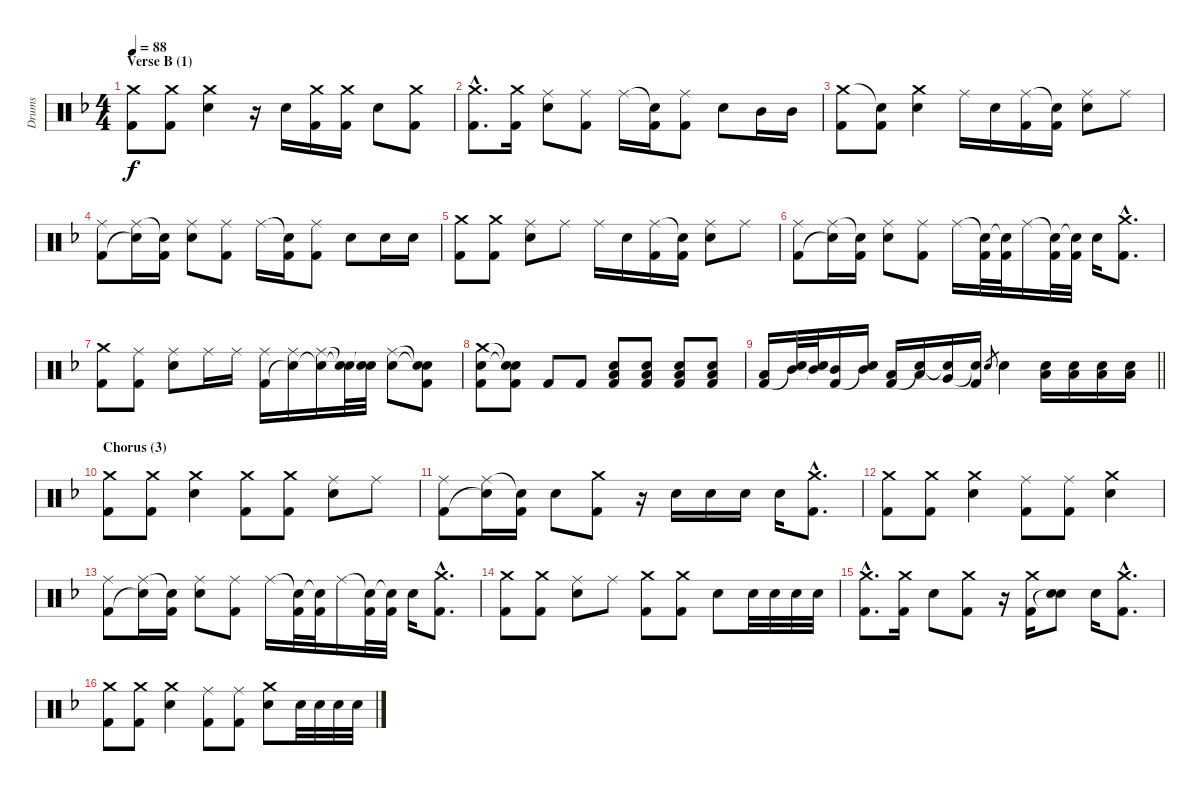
\track ("Drums" "Drums") {instrument percussion}
\staff {score}
\articulation defaults
\ts (4 4)
\section ("" "Verse B (1)")
\tempo 88
\clef neutral
\ks dminor
("Crash medium (hit)" "Kick (hit) 2").8{dy f} ("Crash medium (hit)" "Kick (hit) 2").8 ("Crash medium (hit)" "Electric Snare (hit)").4 r.16 "Electric Snare (hit)".16 ("Crash medium (hit)" "Kick (hit) 2").16 ("Crash medium (hit)" "Kick (hit) 2").16 "Electric Snare (hit)".8 ("Crash medium (hit)" "Kick (hit) 2").8 |
("Crash medium (hit)"{hac} "Kick (hit) 2"{hac}).8{d} ("Crash medium (hit)" "Kick (hit) 2").16 ("Ride (middle)" "Electric Snare (hit)").8 ("Ride (middle)" "Kick (hit) 2").8 "Ride (middle)".16 ("Snare (hit)"{t} "Kick (hit) 2").16 ("Ride (middle)" "Kick (hit) 2").8 "Electric Snare (hit)".8 "Mid Tom (hit)".16 "Mid Tom (hit)".16 |
("Crash medium (hit)" "Kick (hit) 2").8 ("Snare (hit)"{t} "Kick (hit) 2").8 ("Crash medium (hit)" "Electric Snare (hit)").4 "Ride (middle)".16 "Electric Snare (hit)".16 ("Ride (middle)" "Kick (hit) 2").16 ("Snare (hit)"{t} "Kick (hit) 2").16 ("Ride (middle)" "Electric Snare (hit)").8 "Ride (middle)".8 |
("Ride (middle)" "Kick (hit) 2").8 ("Ride (middle)" "Snare (hit)"{t}).16 ("Snare (hit)"{t} "Kick (hit) 2").16 ("Ride (middle)" "Electric Snare (hit)").8 ("Ride (middle)" "Kick (hit) 2").8 "Ride (middle)".16 ("Snare (hit)"{t} "Kick (hit) 2").16 ("Ride (middle)" "Kick (hit) 2").8 "Electric Snare (hit)".8 "Electric Snare (hit)".16 "Electric Snare (hit)".16 |
("Crash medium (hit)" "Kick (hit) 2").8 ("Crash medium (hit)" "Kick (hit) 2").8 ("Ride (middle)" "Electric Snare (hit)").8 "Ride (middle)".8 "Ride (middle)".16 "Electric Snare (hit)".16 ("Ride (middle)" "Kick (hit) 2").16 ("Snare (hit)"{t} "Kick (hit) 2").16 ("Ride (middle)" "Electric Snare (hit)").8 "Ride (middle)".8 |
("Ride (middle)" "Kick (hit) 2").8 ("Ride (middle)" "Snare (hit)"{t}).16 ("Snare (hit)"{t} "Kick (hit) 2").16 ("Ride (middle)" "Electric Snare (hit)").8 ("Ride (middle)" "Kick (hit) 2").8 "Ride (middle)".16 ("Snare (hit)"{t} "Kick (hit) 2").32 ("Snare (hit)"{t} "Kick (hit) 2").32 "Ride (middle)".16 ("Snare (hit)"{t} "Kick (hit) 2").32 ("Snare (hit)"{t} "Kick (hit) 2").32 "Electric Snare (hit)".16 ("Crash medium (hit)"{hac} "Kick (hit) 2"{hac}).8{d} |
("Crash medium (hit)" "Kick (hit) 2").8 ("Ride (middle)" "Kick (hit) 2").8 ("Ride (middle)" "Electric Snare (hit)").8 "Ride (middle)".16 "Ride (middle)".16 ("Ride (middle)" "Kick (hit) 2").16 ("Ride (middle)" "Snare (hit)"{t}).16 ("Ride (middle)" "Snare (hit)"{t}).16 ("Snare (hit)"{t} "Snare (hit)"{t}).32 ("Snare (hit)"{t} "Snare (hit)"{t}).32 ("Ride (middle)" "Electric Snare (hit)").8 ("Snare (hit)"{t} "Snare (hit)"{t} "Kick (hit) 2").8 |
("Crash medium (hit)" "Electric Snare (hit)" "Kick (hit) 2").8 ("Snare (hit)"{t} "Snare (hit)"{t} "Kick (hit) 2").8 "Kick (hit) 2".8 "Kick (hit) 2".8 ("Electric Snare (hit)" "Low Floor Tom (hit)" "Kick (hit) 2").8 ("Electric Snare (hit)" "Low Floor Tom (hit)" "Kick (hit) 2").8 ("Electric Snare (hit)" "Low Floor Tom (hit)" "Kick (hit) 2").8 ("Electric Snare (hit)" "Low Floor Tom (hit)" "Kick (hit) 2").8 |
\barLineRight lightlight
("Low Floor Tom (hit)" "Kick (hit) 2").16 ("Mid Tom (hit)" "Snare (hit)"{t}).32 ("Mid Tom (hit)" "Snare (hit)"{t}).32 ("Mid Tom (hit)" "Kick (hit) 2").16 ("Mid Tom (hit)" "Snare (hit)"{t}).16 ("Low Tom (hit)" "Kick (hit) 2").16 ("Low Tom (hit)" "Snare (hit)"{t}).16 ("Very Low Tom (hit)" "Snare (hit)"{t}).16 ("Snare (hit)"{t} "Kick (hit) 2").16 "Electric Snare (hit)".8{gr} "Electric Snare (hit)".4 ("Electric Snare (hit)" "Low Floor Tom (hit)").16 ("Electric Snare (hit)" "Low Floor Tom (hit)").16 ("Electric Snare (hit)" "Low Floor Tom (hit)").16 ("Electric Snare (hit)" "Low Floor Tom (hit)").16 |
\section ("" "Chorus (3)")
("Crash medium (hit)" "Kick (hit) 2").8 ("Crash medium (hit)" "Kick (hit) 2").8 ("Crash medium (hit)" "Electric Snare (hit)").4 ("Crash medium (hit)" "Kick (hit) 2").8 ("Crash medium (hit)" "Kick (hit) 2").8 ("Ride (middle)" "Electric Snare (hit)").8 "Ride (middle)".8 |
("Ride (middle)" "Kick (hit) 2").8 ("Ride (middle)" "Snare (hit)"{t}).16 ("Snare (hit)"{t} "Kick (hit) 2").16 "Electric Snare (hit)".8 ("Crash medium (hit)" "Kick (hit) 2").8 r.16 "Electric Snare (hit)".16 "Electric Snare (hit)".16 "Electric Snare (hit)".16 "Electric Snare (hit)".16 ("Crash medium (hit)"{hac} "Kick (hit) 2"{hac}).8{d} |
("Crash medium (hit)" "Kick (hit) 2").8 ("Crash medium (hit)" "Kick (hit) 2").8 ("Crash medium (hit)" "Electric Snare (hit)").4 ("Ride (middle)" "Kick (hit) 2").8 ("Ride (middle)" "Kick (hit) 2").8 ("Crash medium (hit)" "Electric Snare (hit)").4 |
("Ride (middle)" "Kick (hit) 2").8 ("Ride (middle)" "Snare (hit)"{t}).16 ("Snare (hit)"{t} "Kick (hit) 2").16 ("Ride (middle)" "Electric Snare (hit)").8 ("Ride (middle)" "Kick (hit) 2").8 "Ride (middle)".16 ("Snare (hit)"{t} "Kick (hit) 2").32 ("Snare (hit)"{t} "Kick (hit) 2").32 "Ride (middle)".16 ("Snare (hit)"{t} "Kick (hit) 2").32 ("Snare (hit)"{t} "Kick (hit) 2").32 "Electric Snare (hit)".16 ("Crash medium (hit)"{hac} "Kick (hit) 2"{hac}).8{d} |
("Crash medium (hit)" "Kick (hit) 2").8 ("Crash medium (hit)" "Kick (hit) 2").8 ("Ride (middle)" "Electric Snare (hit)").8 "Ride (middle)".8 ("Crash medium (hit)" "Kick (hit) 2").8 ("Crash medium (hit)" "Kick (hit) 2").8 "Electric Snare (hit)".8 "Electric Snare (hit)".32 "Electric Snare (hit)".32 "Electric Snare (hit)".32 "Electric Snare (hit)".32 |
("Crash medium (hit)"{hac} "Kick (hit) 2"{hac}).8{d} ("Crash medium (hit)" "Kick (hit) 2").16 "Electric Snare (hit)".8 ("Crash medium (hit)" "Kick (hit) 2").8 r.16 ("Crash medium (hit)" "Kick (hit) 2").16 ("Electric Snare (hit)" "Snare (hit)"{t}).8 "Electric Snare (hit)".16 ("Crash medium (hit)"{hac} "Kick (hit) 2"{hac}).8{d} |
("Crash medium (hit)" "Kick (hit) 2").8 ("Crash medium (hit)" "Kick (hit) 2").8 ("Crash medium (hit)" "Electric Snare (hit)").4 ("Ride (middle)" "Kick (hit) 2").8 ("Ride (middle)" "Kick (hit) 2").8 ("Crash medium (hit)" "Electric Snare (hit)").8 "Electric Snare (hit)".32 "Electric Snare (hit)".32 "Electric Snare (hit)".32 "Electric Snare (hit)".32
